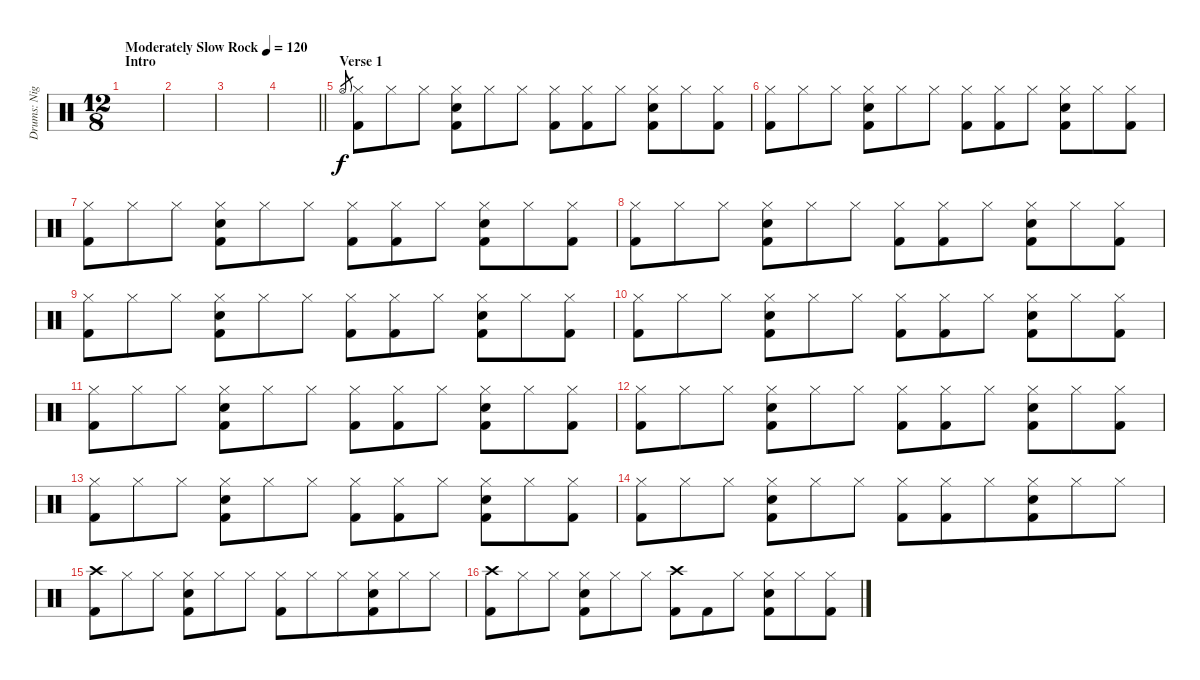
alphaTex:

\track ("Drums: Nigel" "Drums: Nig") {instrument percussion}
\staff {score}
\articulation defaults
\ts (12 8)
\section ("" "Intro")
\tempo (120 "Moderately Slow Rock")
\clef neutral
\ks c
|
|
|
\barLineRight lightlight
|
\section ("" "Verse 1")
"Hi-Hat (open)".8{gr} ("Hi-Hat (closed)" "Kick (hit) 2").8{dy f} "Hi-Hat (closed)".8{beam merge} "Hi-Hat (closed)".8 ("Hi-Hat (closed)" "Snare (hit) 2" "Kick (hit) 2").8{beam merge} "Hi-Hat (closed)".8 "Hi-Hat (closed)".8 ("Hi-Hat (closed)" "Kick (hit) 2").8 ("Hi-Hat (closed)" "Kick (hit) 2").8{beam merge} "Hi-Hat (closed)".8 ("Hi-Hat (closed)" "Snare (hit) 2" "Kick (hit) 2").8{beam merge} "Hi-Hat (closed)".8 ("Hi-Hat (closed)" "Kick (hit) 2").8 |
("Hi-Hat (closed)" "Kick (hit) 2").8 "Hi-Hat (closed)".8{beam merge} "Hi-Hat (closed)".8 ("Hi-Hat (closed)" "Snare (hit) 2" "Kick (hit) 2").8{beam merge} "Hi-Hat (closed)".8 "Hi-Hat (closed)".8 ("Hi-Hat (closed)" "Kick (hit) 2").8 ("Hi-Hat (closed)" "Kick (hit) 2").8{beam merge} "Hi-Hat (closed)".8 ("Hi-Hat (closed)" "Snare (hit) 2" "Kick (hit) 2").8{beam merge} "Hi-Hat (closed)".8 ("Hi-Hat (closed)" "Kick (hit) 2").8 |
("Hi-Hat (closed)" "Kick (hit) 2").8 "Hi-Hat (closed)".8{beam merge} "Hi-Hat (closed)".8 ("Hi-Hat (closed)" "Snare (hit) 2" "Kick (hit) 2").8{beam merge} "Hi-Hat (closed)".8 "Hi-Hat (closed)".8 ("Hi-Hat (closed)" "Kick (hit) 2").8 ("Hi-Hat (closed)" "Kick (hit) 2").8{beam merge} "Hi-Hat (closed)".8 ("Hi-Hat (closed)" "Snare (hit) 2" "Kick (hit) 2").8{beam merge} "Hi-Hat (closed)".8 ("Hi-Hat (closed)" "Kick (hit) 2").8 |
("Hi-Hat (closed)" "Kick (hit) 2").8 "Hi-Hat (closed)".8{beam merge} "Hi-Hat (closed)".8 ("Hi-Hat (closed)" "Snare (hit) 2" "Kick (hit) 2").8{beam merge} "Hi-Hat (closed)".8 "Hi-Hat (closed)".8 ("Hi-Hat (closed)" "Kick (hit) 2").8 ("Hi-Hat (closed)" "Kick (hit) 2").8{beam merge} "Hi-Hat (closed)".8 ("Hi-Hat (closed)" "Snare (hit) 2" "Kick (hit) 2").8{beam merge} "Hi-Hat (closed)".8 ("Hi-Hat (closed)" "Kick (hit) 2").8 |
("Hi-Hat (closed)" "Kick (hit) 2").8 "Hi-Hat (closed)".8{beam merge} "Hi-Hat (closed)".8 ("Hi-Hat (closed)" "Snare (hit) 2" "Kick (hit) 2").8{beam merge} "Hi-Hat (closed)".8 "Hi-Hat (closed)".8 ("Hi-Hat (closed)" "Kick (hit) 2").8 ("Hi-Hat (closed)" "Kick (hit) 2").8{beam merge} "Hi-Hat (closed)".8 ("Hi-Hat (closed)" "Snare (hit) 2" "Kick (hit) 2").8{beam merge} "Hi-Hat (closed)".8 ("Hi-Hat (closed)" "Kick (hit) 2").8 |
("Hi-Hat (closed)" "Kick (hit) 2").8 "Hi-Hat (closed)".8{beam merge} "Hi-Hat (closed)".8 ("Hi-Hat (closed)" "Snare (hit) 2" "Kick (hit) 2").8{beam merge} "Hi-Hat (closed)".8 "Hi-Hat (closed)".8 ("Hi-Hat (closed)" "Kick (hit) 2").8 ("Hi-Hat (closed)" "Kick (hit) 2").8{beam merge} "Hi-Hat (closed)".8 ("Hi-Hat (closed)" "Snare (hit) 2" "Kick (hit) 2").8{beam merge} "Hi-Hat (closed)".8 ("Hi-Hat (closed)" "Kick (hit) 2").8 |
("Hi-Hat (closed)" "Kick (hit) 2").8 "Hi-Hat (closed)".8{beam merge} "Hi-Hat (closed)".8 ("Hi-Hat (closed)" "Snare (hit) 2" "Kick (hit) 2").8{beam merge} "Hi-Hat (closed)".8 "Hi-Hat (closed)".8 ("Hi-Hat (closed)" "Kick (hit) 2").8 ("Hi-Hat (closed)" "Kick (hit) 2").8{beam merge} "Hi-Hat (closed)".8 ("Hi-Hat (closed)" "Snare (hit) 2" "Kick (hit) 2").8{beam merge} "Hi-Hat (closed)".8 ("Hi-Hat (closed)" "Kick (hit) 2").8 |
("Hi-Hat (closed)" "Kick (hit) 2").8 "Hi-Hat (closed)".8{beam merge} "Hi-Hat (closed)".8 ("Hi-Hat (closed)" "Snare (hit) 2" "Kick (hit) 2").8{beam merge} "Hi-Hat (closed)".8 "Hi-Hat (closed)".8 ("Hi-Hat (closed)" "Kick (hit) 2").8 ("Hi-Hat (closed)" "Kick (hit) 2").8{beam merge} "Hi-Hat (closed)".8 ("Hi-Hat (closed)" "Snare (hit) 2" "Kick (hit) 2").8{beam merge} "Hi-Hat (closed)".8 ("Hi-Hat (closed)" "Kick (hit) 2").8 |
("Hi-Hat (closed)" "Kick (hit) 2").8 "Hi-Hat (closed)".8{beam merge} "Hi-Hat (closed)".8 ("Hi-Hat (closed)" "Snare (hit) 2" "Kick (hit) 2").8{beam merge} "Hi-Hat (closed)".8 "Hi-Hat (closed)".8 ("Hi-Hat (closed)" "Kick (hit) 2").8 ("Hi-Hat (closed)" "Kick (hit) 2").8{beam merge} "Hi-Hat (closed)".8 ("Hi-Hat (closed)" "Snare (hit) 2" "Kick (hit) 2").8{beam merge} "Hi-Hat (closed)".8 ("Hi-Hat (closed)" "Kick (hit) 2").8 |
("Hi-Hat (closed)" "Kick (hit) 2").8 "Hi-Hat (closed)".8{beam merge} "Hi-Hat (closed)".8 ("Hi-Hat (closed)" "Snare (hit) 2" "Kick (hit) 2").8{beam merge} "Hi-Hat (closed)".8 "Hi-Hat (closed)".8 ("Hi-Hat (closed)" "Kick (hit) 2").8 ("Hi-Hat (closed)" "Kick (hit) 2").8{beam merge} "Hi-Hat (closed)".8{beam merge} ("Hi-Hat (closed)" "Snare (hit) 2" "Kick (hit) 2").8{beam merge} "Hi-Hat (closed)".8 "Hi-Hat (closed)".8 |
("Crash high (hit)" "Kick (hit) 2").8 "Hi-Hat (closed)".8{beam merge} "Hi-Hat (closed)".8 ("Hi-Hat (closed)" "Snare (hit) 2" "Kick (hit) 2").8{beam merge} "Hi-Hat (closed)".8 "Hi-Hat (closed)".8 ("Hi-Hat (closed)" "Kick (hit) 2").8 "Hi-Hat (closed)".8{beam merge} "Hi-Hat (closed)".8{beam merge} ("Hi-Hat (closed)" "Snare (hit) 2" "Kick (hit) 2").8{beam merge} "Hi-Hat (closed)".8 "Hi-Hat (closed)".8 |
("Crash high (hit)" "Kick (hit) 2").8 "Hi-Hat (closed)".8{beam merge} "Hi-Hat (closed)".8 ("Hi-Hat (closed)" "Snare (hit) 2" "Kick (hit) 2").8{beam merge} "Hi-Hat (closed)".8 "Hi-Hat (closed)".8 ("Crash high (hit)" "Kick (hit) 2").8 "Kick (hit) 2".8 "Hi-Hat (closed)".8 ("Hi-Hat (closed)" "Snare (hit) 2" "Kick (hit) 2").8 "Hi-Hat (closed)".8 ("Hi-Hat (closed)" "Kick (hit) 2").8
